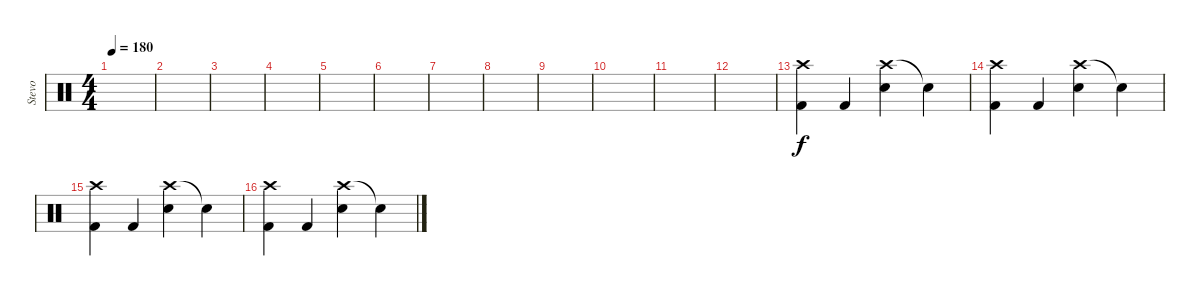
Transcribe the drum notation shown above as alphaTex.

\track ("Stevo" "Stevo") {instrument percussion}
\staff {score}
\articulation defaults
\ts (4 4)
\tempo 180
\clef neutral
\ks c
|
|
|
|
|
|
|
|
|
|
|
|
("Crash high (hit)" "Kick (hit) 2").4 "Kick (hit) 2".4 ("Crash high (hit)" "Electric Snare (hit)").4 "Snare (hit)"{t}.4 |
("Crash high (hit)" "Kick (hit) 2").4 "Kick (hit) 2".4 ("Crash high (hit)" "Electric Snare (hit)").4 "Snare (hit)"{t}.4 |
("Crash high (hit)" "Kick (hit) 2").4 "Kick (hit) 2".4 ("Crash high (hit)" "Electric Snare (hit)").4 "Snare (hit)"{t}.4 |
("Crash high (hit)" "Kick (hit) 2").4 "Kick (hit) 2".4 ("Crash high (hit)" "Electric Snare (hit)").4 "Snare (hit)"{t}.4
